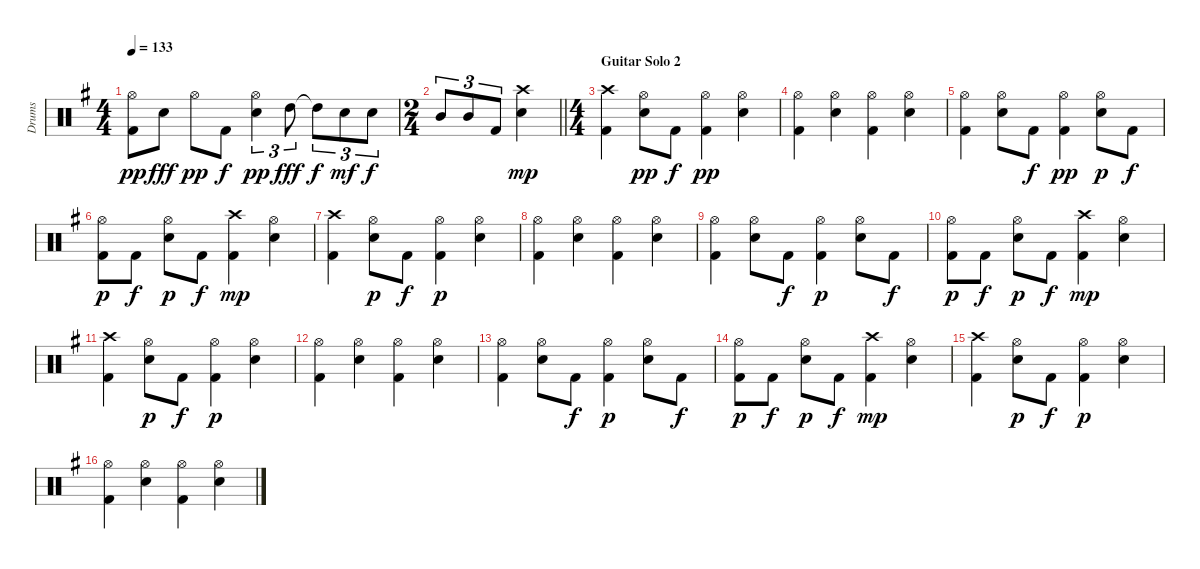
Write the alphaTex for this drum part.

\track ("Drums" "Drums") {instrument percussion}
\staff {score}
\articulation defaults
\ts (4 4)
\tempo 133
\clef neutral
\ks g
("Kick (hit) 2" "Hi-Hat (open)").8{dy pp} "Electric Snare (hit)".8{dy fff} "Hi-Hat (open)".8{dy pp} "Kick (hit) 2".8{dy f} ("Electric Snare (hit)" "Hi-Hat (open)").4{tu (3 2) dy pp} "High Tom (hit)".8{tu (3 2) dy fff} "High Tom (hit)"{t}.8{tu (3 2) dy f} "Electric Snare (hit)".8{tu (3 2) dy mf} "Electric Snare (hit)".8{tu (3 2) dy f} |
\ts (2 4)
\barLineRight lightlight "Mid Tom (hit)".8{tu (3 2)} "Mid Tom (hit)".8{tu (3 2)} "Kick (hit) 2".8{tu (3 2)}
("Electric Snare (hit)" "Crash high (hit)").4{dy mp} |
\ts (4 4)
\section ("" "Guitar Solo 2")
("Crash high (hit)" "Kick (hit) 2").4 ("Electric Snare (hit)" "Hi-Hat (open)").8{dy pp} "Kick (hit) 2".8{dy f} ("Kick (hit) 2" "Hi-Hat (open)").4{dy pp} ("Electric Snare (hit)" "Hi-Hat (open)").4 |
("Kick (hit) 2" "Hi-Hat (open)").4 ("Electric Snare (hit)" "Hi-Hat (open)").4 ("Kick (hit) 2" "Hi-Hat (open)").4 ("Electric Snare (hit)" "Hi-Hat (open)").4 |
("Kick (hit) 2" "Hi-Hat (open)").4 ("Electric Snare (hit)" "Hi-Hat (open)").8 "Kick (hit) 2".8{dy f} ("Kick (hit) 2" "Hi-Hat (open)").4{dy pp} ("Electric Snare (hit)" "Hi-Hat (open)").8{dy p} "Kick (hit) 2".8{dy f} |
("Kick (hit) 2" "Hi-Hat (open)").8{dy p} "Kick (hit) 2".8{dy f} ("Electric Snare (hit)" "Hi-Hat (open)").8{dy p} "Kick (hit) 2".8{dy f} ("Kick (hit) 2" "Crash high (hit)").4{dy mp} ("Electric Snare (hit)" "Hi-Hat (open)").4 |
("Crash high (hit)" "Kick (hit) 2").4 ("Electric Snare (hit)" "Hi-Hat (open)").8{dy p} "Kick (hit) 2".8{dy f} ("Kick (hit) 2" "Hi-Hat (open)").4{dy p} ("Electric Snare (hit)" "Hi-Hat (open)").4 |
("Kick (hit) 2" "Hi-Hat (open)").4 ("Electric Snare (hit)" "Hi-Hat (open)").4 ("Kick (hit) 2" "Hi-Hat (open)").4 ("Electric Snare (hit)" "Hi-Hat (open)").4 |
("Kick (hit) 2" "Hi-Hat (open)").4 ("Electric Snare (hit)" "Hi-Hat (open)").8 "Kick (hit) 2".8{dy f} ("Kick (hit) 2" "Hi-Hat (open)").4{dy p} ("Electric Snare (hit)" "Hi-Hat (open)").8 "Kick (hit) 2".8{dy f} |
("Kick (hit) 2" "Hi-Hat (open)").8{dy p} "Kick (hit) 2".8{dy f} ("Electric Snare (hit)" "Hi-Hat (open)").8{dy p} "Kick (hit) 2".8{dy f} ("Kick (hit) 2" "Crash high (hit)").4{dy mp} ("Electric Snare (hit)" "Hi-Hat (open)").4 |
("Crash high (hit)" "Kick (hit) 2").4 ("Electric Snare (hit)" "Hi-Hat (open)").8{dy p} "Kick (hit) 2".8{dy f} ("Kick (hit) 2" "Hi-Hat (open)").4{dy p} ("Electric Snare (hit)" "Hi-Hat (open)").4 |
("Kick (hit) 2" "Hi-Hat (open)").4 ("Electric Snare (hit)" "Hi-Hat (open)").4 ("Kick (hit) 2" "Hi-Hat (open)").4 ("Electric Snare (hit)" "Hi-Hat (open)").4 |
("Kick (hit) 2" "Hi-Hat (open)").4 ("Electric Snare (hit)" "Hi-Hat (open)").8 "Kick (hit) 2".8{dy f} ("Kick (hit) 2" "Hi-Hat (open)").4{dy p} ("Electric Snare (hit)" "Hi-Hat (open)").8 "Kick (hit) 2".8{dy f} |
("Kick (hit) 2" "Hi-Hat (open)").8{dy p} "Kick (hit) 2".8{dy f} ("Electric Snare (hit)" "Hi-Hat (open)").8{dy p} "Kick (hit) 2".8{dy f} ("Kick (hit) 2" "Crash high (hit)").4{dy mp} ("Electric Snare (hit)" "Hi-Hat (open)").4 |
("Crash high (hit)" "Kick (hit) 2").4 ("Electric Snare (hit)" "Hi-Hat (open)").8{dy p} "Kick (hit) 2".8{dy f} ("Kick (hit) 2" "Hi-Hat (open)").4{dy p} ("Electric Snare (hit)" "Hi-Hat (open)").4 |
("Kick (hit) 2" "Hi-Hat (open)").4 ("Electric Snare (hit)" "Hi-Hat (open)").4 ("Kick (hit) 2" "Hi-Hat (open)").4 ("Electric Snare (hit)" "Hi-Hat (open)").4
